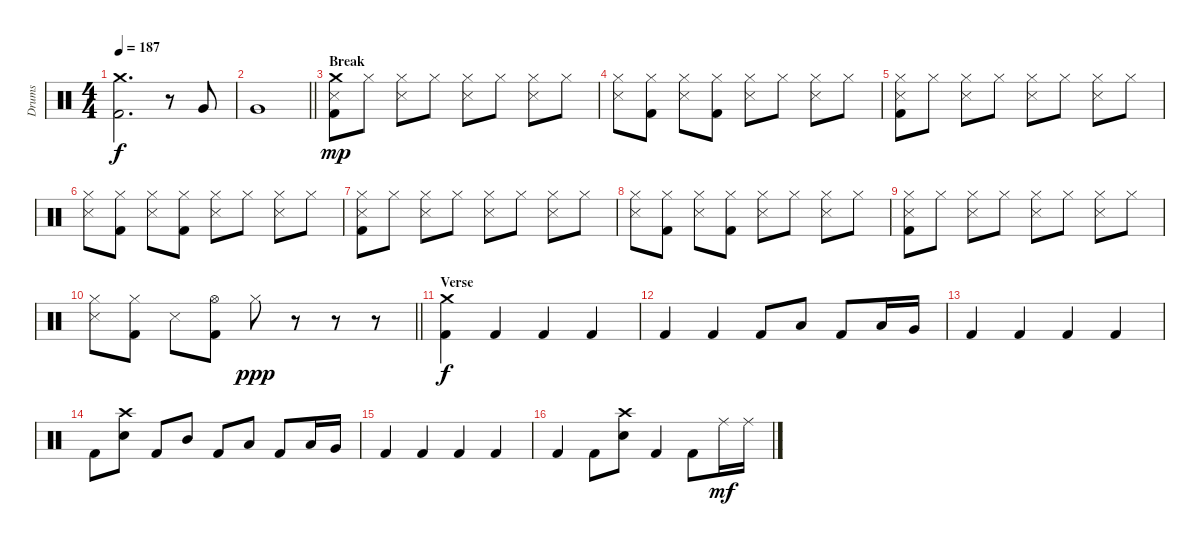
\track ("Drums" "Drums") {instrument percussion}
\staff {score}
\articulation defaults
\ts (4 4)
\tempo 187
\clef neutral
\ks c
("Crash medium (hit)" "Kick (hit) 2").2{d dy f} r.8 "Very Low Tom (hit)".8 |
\barLineRight lightlight "Very Low Tom (hit)".1
|
\section ("" "Break")
("Crash medium (hit)" "Snare (side stick) 3" "Kick (hit) 2").8{dy mp} "Hi-Hat (closed)".8 ("Hi-Hat (closed)" "Snare (side stick) 3").8 "Hi-Hat (closed)".8 ("Hi-Hat (closed)" "Snare (side stick) 3").8 "Hi-Hat (closed)".8 ("Hi-Hat (closed)" "Snare (side stick) 3").8 "Hi-Hat (closed)".8 |
("Hi-Hat (closed)" "Snare (side stick) 3").8 ("Hi-Hat (closed)" "Kick (hit) 2").8 ("Hi-Hat (closed)" "Snare (side stick) 3").8 ("Hi-Hat (closed)" "Kick (hit) 2").8 ("Hi-Hat (closed)" "Snare (side stick) 3").8 "Hi-Hat (closed)".8 ("Hi-Hat (closed)" "Snare (side stick) 3").8 "Hi-Hat (closed)".8 |
("Hi-Hat (closed)" "Snare (side stick) 3" "Kick (hit) 2").8 "Hi-Hat (closed)".8 ("Hi-Hat (closed)" "Snare (side stick) 3").8 "Hi-Hat (closed)".8 ("Hi-Hat (closed)" "Snare (side stick) 3").8 "Hi-Hat (closed)".8 ("Hi-Hat (closed)" "Snare (side stick) 3").8 "Hi-Hat (closed)".8 |
("Hi-Hat (closed)" "Snare (side stick) 3").8 ("Hi-Hat (closed)" "Kick (hit) 2").8 ("Hi-Hat (closed)" "Snare (side stick) 3").8 ("Hi-Hat (closed)" "Kick (hit) 2").8 ("Hi-Hat (closed)" "Snare (side stick) 3").8 "Hi-Hat (closed)".8 ("Hi-Hat (closed)" "Snare (side stick) 3").8 "Hi-Hat (closed)".8 |
("Hi-Hat (closed)" "Snare (side stick) 3" "Kick (hit) 2").8 "Hi-Hat (closed)".8 ("Hi-Hat (closed)" "Snare (side stick) 3").8 "Hi-Hat (closed)".8 ("Hi-Hat (closed)" "Snare (side stick) 3").8 "Hi-Hat (closed)".8 ("Hi-Hat (closed)" "Snare (side stick) 3").8 "Hi-Hat (closed)".8 |
("Hi-Hat (closed)" "Snare (side stick) 3").8 ("Hi-Hat (closed)" "Kick (hit) 2").8 ("Hi-Hat (closed)" "Snare (side stick) 3").8 ("Hi-Hat (closed)" "Kick (hit) 2").8 ("Hi-Hat (closed)" "Snare (side stick) 3").8 "Hi-Hat (closed)".8 ("Hi-Hat (closed)" "Snare (side stick) 3").8 "Hi-Hat (closed)".8 |
("Hi-Hat (closed)" "Snare (side stick) 3" "Kick (hit) 2").8 "Hi-Hat (closed)".8 ("Hi-Hat (closed)" "Snare (side stick) 3").8 "Hi-Hat (closed)".8 ("Hi-Hat (closed)" "Snare (side stick) 3").8 "Hi-Hat (closed)".8 ("Hi-Hat (closed)" "Snare (side stick) 3").8 "Hi-Hat (closed)".8 |
\barLineRight lightlight
("Hi-Hat (closed)" "Snare (side stick) 3").8 ("Hi-Hat (closed)" "Kick (hit) 2").8 "Snare (side stick) 3".8 ("Hi-Hat (open)" "Kick (hit) 2").8 "Hi-Hat (closed)".8{dy ppp} r.8 r.8 r.8 |
\section ("" "Verse")
("Crash medium (hit)" "Kick (hit) 2").4{dy f} "Kick (hit) 2".4 "Kick (hit) 2".4 "Kick (hit) 2".4 |
"Kick (hit) 2".4 "Kick (hit) 2".4 "Kick (hit) 2".8 "Low Tom (hit)".8 "Kick (hit) 2".8 "Low Tom (hit)".16 "Very Low Tom (hit)".16 |
"Kick (hit) 2".4 "Kick (hit) 2".4 "Kick (hit) 2".4 "Kick (hit) 2".4 |
"Kick (hit) 2".8 ("Crash high (hit)" "Snare (hit) 2").8 "Kick (hit) 2".8 "Mid Tom (hit)".8 "Kick (hit) 2".8 "Low Tom (hit)".8 "Kick (hit) 2".8 "Low Tom (hit)".16 "Very Low Tom (hit)".16 |
"Kick (hit) 2".4 "Kick (hit) 2".4 "Kick (hit) 2".4 "Kick (hit) 2".4 |
"Kick (hit) 2".4 "Kick (hit) 2".8 ("Crash high (hit)" "Snare (hit) 2").8 "Kick (hit) 2".4 "Kick (hit) 2".8 "Ride (middle)".16{dy mf} "Ride (middle)".16
